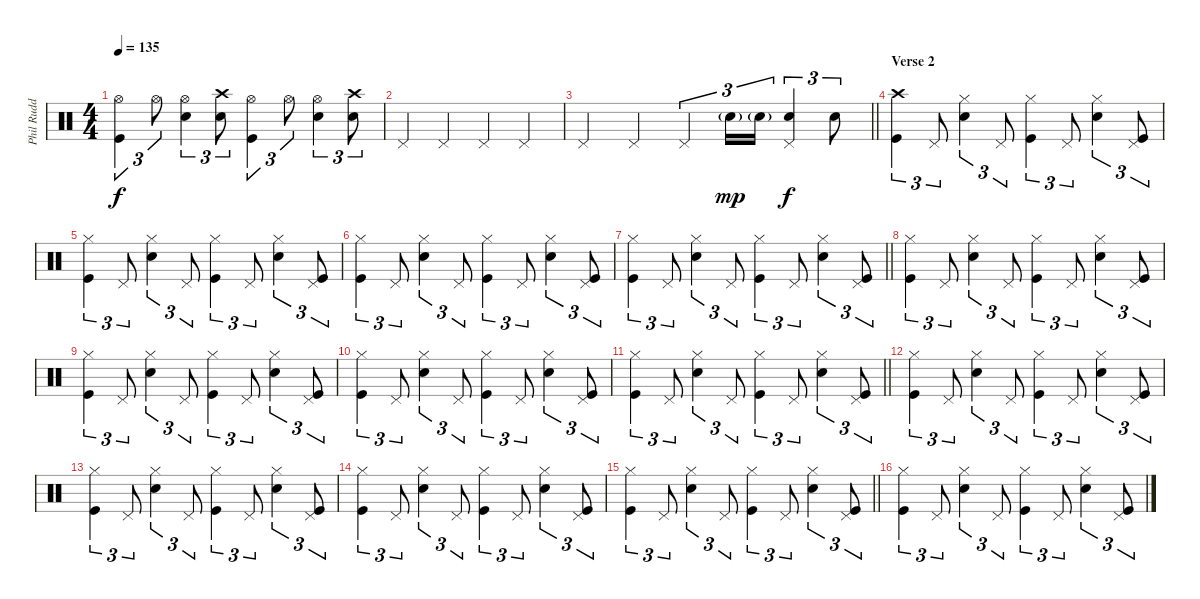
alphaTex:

\track ("Phil Rudd" "Phil Rudd") {instrument percussion}
\staff {score}
\articulation defaults
\ts (4 4)
\tempo 135
\clef neutral
\ks c
("Hi-Hat (open)" "Kick (hit)").4{tu (3 2) dy f} "Hi-Hat (open)".8{tu (3 2)} ("Hi-Hat (open)" "Snare (hit) 2").4{tu (3 2)} ("Crash high (hit)" "Snare (hit) 2").8{tu (3 2)} ("Hi-Hat (open)" "Kick (hit)").4{tu (3 2)} "Hi-Hat (open)".8{tu (3 2)} ("Hi-Hat (open)" "Snare (hit) 2").4{tu (3 2)} ("Crash high (hit)" "Snare (hit) 2").8{tu (3 2)} |
"Pedal Hi-Hat (hit)".4 "Pedal Hi-Hat (hit)".4 "Pedal Hi-Hat (hit)".4 "Pedal Hi-Hat (hit)".4 |
\barLineRight lightlight "Pedal Hi-Hat (hit)".4 "Pedal Hi-Hat (hit)".4 "Pedal Hi-Hat (hit)".4{tu (3 2)} "Snare (hit) 2"{g}.16{tu (3 2) dy mp} "Snare (hit) 2"{g}.16{tu (3 2)}
("Pedal Hi-Hat (hit)" "Snare (hit) 2").4{tu (3 2) dy f} "Snare (hit) 2".8{tu (3 2)} |
\section ("" "Verse 2")
("Crash high (hit)" "Kick (hit)").4{tu (3 2)} "Pedal Hi-Hat (hit)".8{tu (3 2)} ("Hi-Hat (closed)" "Snare (hit) 2").4{tu (3 2)} "Pedal Hi-Hat (hit)".8{tu (3 2)} ("Hi-Hat (closed)" "Kick (hit)").4{tu (3 2)} "Pedal Hi-Hat (hit)".8{tu (3 2)} ("Hi-Hat (closed)" "Snare (hit) 2").4{tu (3 2)} ("Pedal Hi-Hat (hit)" "Kick (hit)").8{tu (3 2)} |
("Hi-Hat (closed)" "Kick (hit)").4{tu (3 2)} "Pedal Hi-Hat (hit)".8{tu (3 2)} ("Hi-Hat (closed)" "Snare (hit) 2").4{tu (3 2)} "Pedal Hi-Hat (hit)".8{tu (3 2)} ("Hi-Hat (closed)" "Kick (hit)").4{tu (3 2)} "Pedal Hi-Hat (hit)".8{tu (3 2)} ("Hi-Hat (closed)" "Snare (hit) 2").4{tu (3 2)} ("Pedal Hi-Hat (hit)" "Kick (hit)").8{tu (3 2)} |
("Hi-Hat (closed)" "Kick (hit)").4{tu (3 2)} "Pedal Hi-Hat (hit)".8{tu (3 2)} ("Hi-Hat (closed)" "Snare (hit) 2").4{tu (3 2)} "Pedal Hi-Hat (hit)".8{tu (3 2)} ("Hi-Hat (closed)" "Kick (hit)").4{tu (3 2)} "Pedal Hi-Hat (hit)".8{tu (3 2)} ("Hi-Hat (closed)" "Snare (hit) 2").4{tu (3 2)} ("Pedal Hi-Hat (hit)" "Kick (hit)").8{tu (3 2)} |
\barLineRight lightlight
("Hi-Hat (closed)" "Kick (hit)").4{tu (3 2)} "Pedal Hi-Hat (hit)".8{tu (3 2)} ("Hi-Hat (closed)" "Snare (hit) 2").4{tu (3 2)} "Pedal Hi-Hat (hit)".8{tu (3 2)} ("Hi-Hat (closed)" "Kick (hit)").4{tu (3 2)} "Pedal Hi-Hat (hit)".8{tu (3 2)} ("Hi-Hat (closed)" "Snare (hit) 2").4{tu (3 2)} ("Pedal Hi-Hat (hit)" "Kick (hit)").8{tu (3 2)} |
("Hi-Hat (closed)" "Kick (hit)").4{tu (3 2)} "Pedal Hi-Hat (hit)".8{tu (3 2)} ("Hi-Hat (closed)" "Snare (hit) 2").4{tu (3 2)} "Pedal Hi-Hat (hit)".8{tu (3 2)} ("Hi-Hat (closed)" "Kick (hit)").4{tu (3 2)} "Pedal Hi-Hat (hit)".8{tu (3 2)} ("Hi-Hat (closed)" "Snare (hit) 2").4{tu (3 2)} ("Pedal Hi-Hat (hit)" "Kick (hit)").8{tu (3 2)} |
("Hi-Hat (closed)" "Kick (hit)").4{tu (3 2)} "Pedal Hi-Hat (hit)".8{tu (3 2)} ("Hi-Hat (closed)" "Snare (hit) 2").4{tu (3 2)} "Pedal Hi-Hat (hit)".8{tu (3 2)} ("Hi-Hat (closed)" "Kick (hit)").4{tu (3 2)} "Pedal Hi-Hat (hit)".8{tu (3 2)} ("Hi-Hat (closed)" "Snare (hit) 2").4{tu (3 2)} ("Pedal Hi-Hat (hit)" "Kick (hit)").8{tu (3 2)} |
("Hi-Hat (closed)" "Kick (hit)").4{tu (3 2)} "Pedal Hi-Hat (hit)".8{tu (3 2)} ("Hi-Hat (closed)" "Snare (hit) 2").4{tu (3 2)} "Pedal Hi-Hat (hit)".8{tu (3 2)} ("Hi-Hat (closed)" "Kick (hit)").4{tu (3 2)} "Pedal Hi-Hat (hit)".8{tu (3 2)} ("Hi-Hat (closed)" "Snare (hit) 2").4{tu (3 2)} ("Pedal Hi-Hat (hit)" "Kick (hit)").8{tu (3 2)} |
\barLineRight lightlight
("Hi-Hat (closed)" "Kick (hit)").4{tu (3 2)} "Pedal Hi-Hat (hit)".8{tu (3 2)} ("Hi-Hat (closed)" "Snare (hit) 2").4{tu (3 2)} "Pedal Hi-Hat (hit)".8{tu (3 2)} ("Hi-Hat (closed)" "Kick (hit)").4{tu (3 2)} "Pedal Hi-Hat (hit)".8{tu (3 2)} ("Hi-Hat (closed)" "Snare (hit) 2").4{tu (3 2)} ("Pedal Hi-Hat (hit)" "Kick (hit)").8{tu (3 2)} |
("Hi-Hat (closed)" "Kick (hit)").4{tu (3 2)} "Pedal Hi-Hat (hit)".8{tu (3 2)} ("Hi-Hat (closed)" "Snare (hit) 2").4{tu (3 2)} "Pedal Hi-Hat (hit)".8{tu (3 2)} ("Hi-Hat (closed)" "Kick (hit)").4{tu (3 2)} "Pedal Hi-Hat (hit)".8{tu (3 2)} ("Hi-Hat (closed)" "Snare (hit) 2").4{tu (3 2)} ("Pedal Hi-Hat (hit)" "Kick (hit)").8{tu (3 2)} |
("Hi-Hat (closed)" "Kick (hit)").4{tu (3 2)} "Pedal Hi-Hat (hit)".8{tu (3 2)} ("Hi-Hat (closed)" "Snare (hit) 2").4{tu (3 2)} "Pedal Hi-Hat (hit)".8{tu (3 2)} ("Hi-Hat (closed)" "Kick (hit)").4{tu (3 2)} "Pedal Hi-Hat (hit)".8{tu (3 2)} ("Hi-Hat (closed)" "Snare (hit) 2").4{tu (3 2)} ("Pedal Hi-Hat (hit)" "Kick (hit)").8{tu (3 2)} |
("Hi-Hat (closed)" "Kick (hit)").4{tu (3 2)} "Pedal Hi-Hat (hit)".8{tu (3 2)} ("Hi-Hat (closed)" "Snare (hit) 2").4{tu (3 2)} "Pedal Hi-Hat (hit)".8{tu (3 2)} ("Hi-Hat (closed)" "Kick (hit)").4{tu (3 2)} "Pedal Hi-Hat (hit)".8{tu (3 2)} ("Hi-Hat (closed)" "Snare (hit) 2").4{tu (3 2)} ("Pedal Hi-Hat (hit)" "Kick (hit)").8{tu (3 2)} |
\barLineRight lightlight
("Hi-Hat (closed)" "Kick (hit)").4{tu (3 2)} "Pedal Hi-Hat (hit)".8{tu (3 2)} ("Hi-Hat (closed)" "Snare (hit) 2").4{tu (3 2)} "Pedal Hi-Hat (hit)".8{tu (3 2)} ("Hi-Hat (closed)" "Kick (hit)").4{tu (3 2)} "Pedal Hi-Hat (hit)".8{tu (3 2)} ("Hi-Hat (closed)" "Snare (hit) 2").4{tu (3 2)} ("Pedal Hi-Hat (hit)" "Kick (hit)").8{tu (3 2)} |
("Hi-Hat (closed)" "Kick (hit)").4{tu (3 2)} "Pedal Hi-Hat (hit)".8{tu (3 2)} ("Hi-Hat (closed)" "Snare (hit) 2").4{tu (3 2)} "Pedal Hi-Hat (hit)".8{tu (3 2)} ("Hi-Hat (closed)" "Kick (hit)").4{tu (3 2)} "Pedal Hi-Hat (hit)".8{tu (3 2)} ("Hi-Hat (closed)" "Snare (hit) 2").4{tu (3 2)} ("Pedal Hi-Hat (hit)" "Kick (hit)").8{tu (3 2)}
